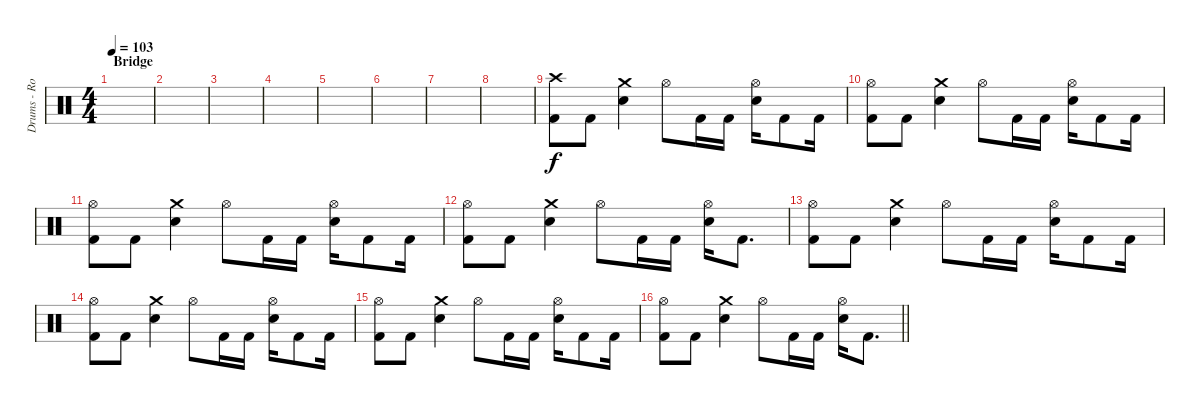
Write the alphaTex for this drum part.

\track ("Drums - Rob Bourdon" "Drums - Ro") {instrument percussion}
\staff {score}
\articulation defaults
\ts (4 4)
\section ("" "Bridge")
\tempo 103
\clef neutral
\ks c
|
|
|
|
|
|
|
|
("Crash high (hit)" "Kick (hit) 2").8 "Kick (hit) 2".8 ("Crash medium (hit)" "Snare (hit) 2").4 "Hi-Hat (open)".8 "Kick (hit) 2".16 "Kick (hit) 2".16 ("Hi-Hat (open)" "Snare (hit) 2").16 "Kick (hit) 2".8 "Kick (hit) 2".16 |
("Hi-Hat (open)" "Kick (hit) 2").8 "Kick (hit) 2".8 ("Crash medium (hit)" "Snare (hit) 2").4 "Hi-Hat (open)".8 "Kick (hit) 2".16 "Kick (hit) 2".16 ("Hi-Hat (open)" "Snare (hit) 2").16 "Kick (hit) 2".8 "Kick (hit) 2".16 |
("Hi-Hat (open)" "Kick (hit) 2").8 "Kick (hit) 2".8 ("Crash medium (hit)" "Snare (hit) 2").4 "Hi-Hat (open)".8 "Kick (hit) 2".16 "Kick (hit) 2".16 ("Hi-Hat (open)" "Snare (hit) 2").16 "Kick (hit) 2".8 "Kick (hit) 2".16 |
("Hi-Hat (open)" "Kick (hit) 2").8 "Kick (hit) 2".8 ("Crash medium (hit)" "Snare (hit) 2").4 "Hi-Hat (open)".8 "Kick (hit) 2".16 "Kick (hit) 2".16 ("Hi-Hat (open)" "Snare (hit) 2").16 "Kick (hit) 2".8{d} |
("Hi-Hat (open)" "Kick (hit) 2").8 "Kick (hit) 2".8 ("Crash medium (hit)" "Snare (hit) 2").4 "Hi-Hat (open)".8 "Kick (hit) 2".16 "Kick (hit) 2".16 ("Hi-Hat (open)" "Snare (hit) 2").16 "Kick (hit) 2".8 "Kick (hit) 2".16 |
("Hi-Hat (open)" "Kick (hit) 2").8 "Kick (hit) 2".8 ("Crash medium (hit)" "Snare (hit) 2").4 "Hi-Hat (open)".8 "Kick (hit) 2".16 "Kick (hit) 2".16 ("Hi-Hat (open)" "Snare (hit) 2").16 "Kick (hit) 2".8 "Kick (hit) 2".16 |
("Hi-Hat (open)" "Kick (hit) 2").8 "Kick (hit) 2".8 ("Crash medium (hit)" "Snare (hit) 2").4 "Hi-Hat (open)".8 "Kick (hit) 2".16 "Kick (hit) 2".16 ("Hi-Hat (open)" "Snare (hit) 2").16 "Kick (hit) 2".8 "Kick (hit) 2".16 |
\barLineRight lightlight
("Hi-Hat (open)" "Kick (hit) 2").8 "Kick (hit) 2".8 ("Crash medium (hit)" "Snare (hit) 2").4 "Hi-Hat (open)".8 "Kick (hit) 2".16 "Kick (hit) 2".16 ("Hi-Hat (open)" "Snare (hit) 2").16 "Kick (hit) 2".8{d}
